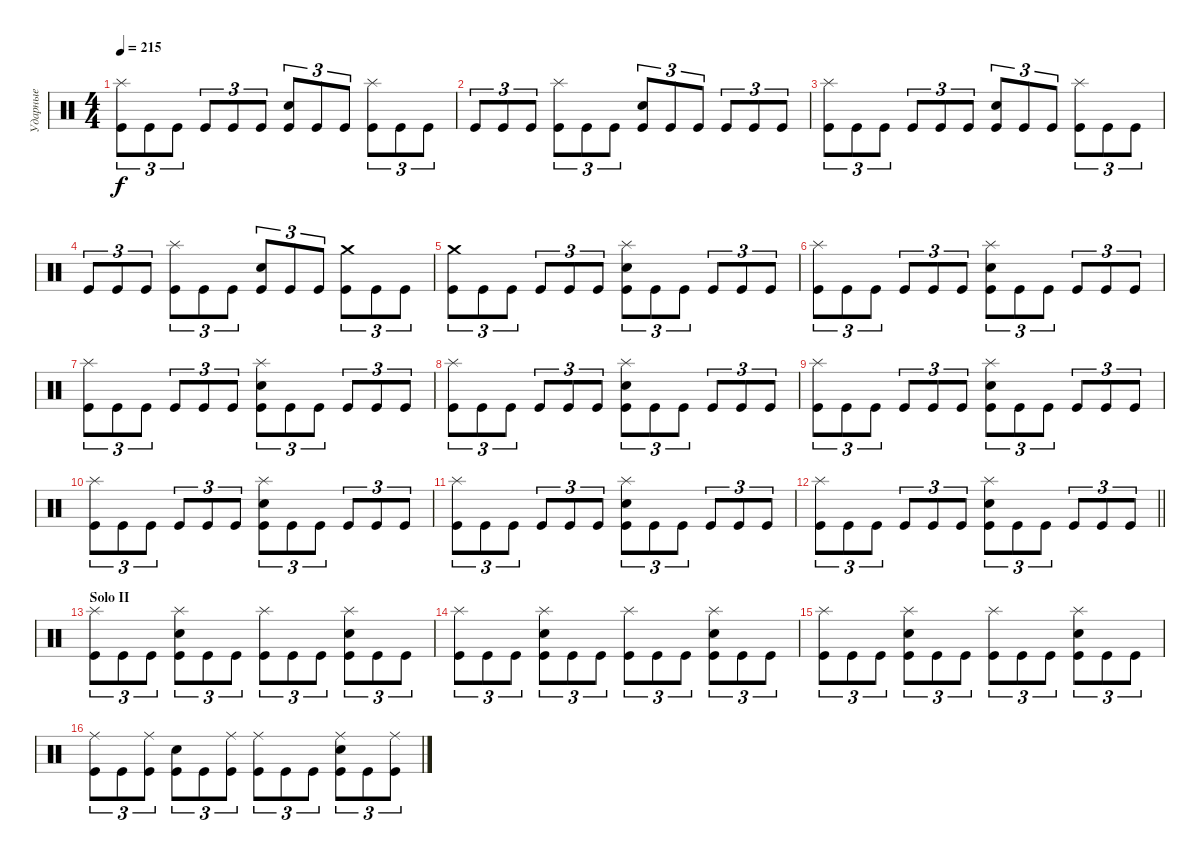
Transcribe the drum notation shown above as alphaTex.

\track ("Ударные" "Ударные") {instrument percussion}
\staff {score}
\articulation defaults
\ts (4 4)
\tempo 215
\clef neutral
\ks c
("Splash (hit)" "Kick (hit)").8{tu (3 2) dy f} "Kick (hit)".8{tu (3 2)} "Kick (hit)".8{tu (3 2)} "Kick (hit)".8{tu (3 2)} "Kick (hit)".8{tu (3 2)} "Kick (hit)".8{tu (3 2)} ("Electric Snare (hit)" "Kick (hit)").8{tu (3 2)} "Kick (hit)".8{tu (3 2)} "Kick (hit)".8{tu (3 2)} ("Splash (hit)" "Kick (hit)").8{tu (3 2)} "Kick (hit)".8{tu (3 2)} "Kick (hit)".8{tu (3 2)} |
"Kick (hit)".8{tu (3 2)} "Kick (hit)".8{tu (3 2)} "Kick (hit)".8{tu (3 2)} ("Splash (hit)" "Kick (hit)").8{tu (3 2)} "Kick (hit)".8{tu (3 2)} "Kick (hit)".8{tu (3 2)} ("Electric Snare (hit)" "Kick (hit)").8{tu (3 2)} "Kick (hit)".8{tu (3 2)} "Kick (hit)".8{tu (3 2)} "Kick (hit)".8{tu (3 2)} "Kick (hit)".8{tu (3 2)} "Kick (hit)".8{tu (3 2)} |
("Splash (hit)" "Kick (hit)").8{tu (3 2)} "Kick (hit)".8{tu (3 2)} "Kick (hit)".8{tu (3 2)} "Kick (hit)".8{tu (3 2)} "Kick (hit)".8{tu (3 2)} "Kick (hit)".8{tu (3 2)} ("Electric Snare (hit)" "Kick (hit)").8{tu (3 2)} "Kick (hit)".8{tu (3 2)} "Kick (hit)".8{tu (3 2)} ("Splash (hit)" "Kick (hit)").8{tu (3 2)} "Kick (hit)".8{tu (3 2)} "Kick (hit)".8{tu (3 2)} |
"Kick (hit)".8{tu (3 2)} "Kick (hit)".8{tu (3 2)} "Kick (hit)".8{tu (3 2)} ("Splash (hit)" "Kick (hit)").8{tu (3 2)} "Kick (hit)".8{tu (3 2)} "Kick (hit)".8{tu (3 2)} ("Electric Snare (hit)" "Kick (hit)").8{tu (3 2)} "Kick (hit)".8{tu (3 2)} "Kick (hit)".8{tu (3 2)} ("Crash medium (hit)" "Kick (hit)").8{tu (3 2)} "Kick (hit)".8{tu (3 2)} "Kick (hit)".8{tu (3 2)} |
("Crash medium (hit)" "Kick (hit)").8{tu (3 2)} "Kick (hit)".8{tu (3 2)} "Kick (hit)".8{tu (3 2)} "Kick (hit)".8{tu (3 2)} "Kick (hit)".8{tu (3 2)} "Kick (hit)".8{tu (3 2)} ("Splash (hit)" "Electric Snare (hit)" "Kick (hit)").8{tu (3 2)} "Kick (hit)".8{tu (3 2)} "Kick (hit)".8{tu (3 2)} "Kick (hit)".8{tu (3 2)} "Kick (hit)".8{tu (3 2)} "Kick (hit)".8{tu (3 2)} |
("Splash (hit)" "Kick (hit)").8{tu (3 2)} "Kick (hit)".8{tu (3 2)} "Kick (hit)".8{tu (3 2)} "Kick (hit)".8{tu (3 2)} "Kick (hit)".8{tu (3 2)} "Kick (hit)".8{tu (3 2)} ("Splash (hit)" "Electric Snare (hit)" "Kick (hit)").8{tu (3 2)} "Kick (hit)".8{tu (3 2)} "Kick (hit)".8{tu (3 2)} "Kick (hit)".8{tu (3 2)} "Kick (hit)".8{tu (3 2)} "Kick (hit)".8{tu (3 2)} |
("Splash (hit)" "Kick (hit)").8{tu (3 2)} "Kick (hit)".8{tu (3 2)} "Kick (hit)".8{tu (3 2)} "Kick (hit)".8{tu (3 2)} "Kick (hit)".8{tu (3 2)} "Kick (hit)".8{tu (3 2)} ("Splash (hit)" "Electric Snare (hit)" "Kick (hit)").8{tu (3 2)} "Kick (hit)".8{tu (3 2)} "Kick (hit)".8{tu (3 2)} "Kick (hit)".8{tu (3 2)} "Kick (hit)".8{tu (3 2)} "Kick (hit)".8{tu (3 2)} |
("Splash (hit)" "Kick (hit)").8{tu (3 2)} "Kick (hit)".8{tu (3 2)} "Kick (hit)".8{tu (3 2)} "Kick (hit)".8{tu (3 2)} "Kick (hit)".8{tu (3 2)} "Kick (hit)".8{tu (3 2)} ("Splash (hit)" "Electric Snare (hit)" "Kick (hit)").8{tu (3 2)} "Kick (hit)".8{tu (3 2)} "Kick (hit)".8{tu (3 2)} "Kick (hit)".8{tu (3 2)} "Kick (hit)".8{tu (3 2)} "Kick (hit)".8{tu (3 2)} |
("Splash (hit)" "Kick (hit)").8{tu (3 2)} "Kick (hit)".8{tu (3 2)} "Kick (hit)".8{tu (3 2)} "Kick (hit)".8{tu (3 2)} "Kick (hit)".8{tu (3 2)} "Kick (hit)".8{tu (3 2)} ("Splash (hit)" "Electric Snare (hit)" "Kick (hit)").8{tu (3 2)} "Kick (hit)".8{tu (3 2)} "Kick (hit)".8{tu (3 2)} "Kick (hit)".8{tu (3 2)} "Kick (hit)".8{tu (3 2)} "Kick (hit)".8{tu (3 2)} |
("Splash (hit)" "Kick (hit)").8{tu (3 2)} "Kick (hit)".8{tu (3 2)} "Kick (hit)".8{tu (3 2)} "Kick (hit)".8{tu (3 2)} "Kick (hit)".8{tu (3 2)} "Kick (hit)".8{tu (3 2)} ("Splash (hit)" "Electric Snare (hit)" "Kick (hit)").8{tu (3 2)} "Kick (hit)".8{tu (3 2)} "Kick (hit)".8{tu (3 2)} "Kick (hit)".8{tu (3 2)} "Kick (hit)".8{tu (3 2)} "Kick (hit)".8{tu (3 2)} |
("Splash (hit)" "Kick (hit)").8{tu (3 2)} "Kick (hit)".8{tu (3 2)} "Kick (hit)".8{tu (3 2)} "Kick (hit)".8{tu (3 2)} "Kick (hit)".8{tu (3 2)} "Kick (hit)".8{tu (3 2)} ("Splash (hit)" "Electric Snare (hit)" "Kick (hit)").8{tu (3 2)} "Kick (hit)".8{tu (3 2)} "Kick (hit)".8{tu (3 2)} "Kick (hit)".8{tu (3 2)} "Kick (hit)".8{tu (3 2)} "Kick (hit)".8{tu (3 2)} |
\barLineRight lightlight
("Splash (hit)" "Kick (hit)").8{tu (3 2)} "Kick (hit)".8{tu (3 2)} "Kick (hit)".8{tu (3 2)} "Kick (hit)".8{tu (3 2)} "Kick (hit)".8{tu (3 2)} "Kick (hit)".8{tu (3 2)} ("Splash (hit)" "Electric Snare (hit)" "Kick (hit)").8{tu (3 2)} "Kick (hit)".8{tu (3 2)} "Kick (hit)".8{tu (3 2)} "Kick (hit)".8{tu (3 2)} "Kick (hit)".8{tu (3 2)} "Kick (hit)".8{tu (3 2)} |
\section ("" "Solo II")
("Splash (hit)" "Kick (hit)").8{tu (3 2)} "Kick (hit)".8{tu (3 2)} "Kick (hit)".8{tu (3 2)} ("Splash (hit)" "Electric Snare (hit)" "Kick (hit)").8{tu (3 2)} "Kick (hit)".8{tu (3 2)} "Kick (hit)".8{tu (3 2)} ("Splash (hit)" "Kick (hit)").8{tu (3 2)} "Kick (hit)".8{tu (3 2)} "Kick (hit)".8{tu (3 2)} ("Splash (hit)" "Electric Snare (hit)" "Kick (hit)").8{tu (3 2)} "Kick (hit)".8{tu (3 2)} "Kick (hit)".8{tu (3 2)} |
("Splash (hit)" "Kick (hit)").8{tu (3 2)} "Kick (hit)".8{tu (3 2)} "Kick (hit)".8{tu (3 2)} ("Splash (hit)" "Electric Snare (hit)" "Kick (hit)").8{tu (3 2)} "Kick (hit)".8{tu (3 2)} "Kick (hit)".8{tu (3 2)} ("Splash (hit)" "Kick (hit)").8{tu (3 2)} "Kick (hit)".8{tu (3 2)} "Kick (hit)".8{tu (3 2)} ("Splash (hit)" "Electric Snare (hit)" "Kick (hit)").8{tu (3 2)} "Kick (hit)".8{tu (3 2)} "Kick (hit)".8{tu (3 2)} |
("Splash (hit)" "Kick (hit)").8{tu (3 2)} "Kick (hit)".8{tu (3 2)} "Kick (hit)".8{tu (3 2)} ("Splash (hit)" "Electric Snare (hit)" "Kick (hit)").8{tu (3 2)} "Kick (hit)".8{tu (3 2)} "Kick (hit)".8{tu (3 2)} ("Splash (hit)" "Kick (hit)").8{tu (3 2)} "Kick (hit)".8{tu (3 2)} "Kick (hit)".8{tu (3 2)} ("Splash (hit)" "Electric Snare (hit)" "Kick (hit)").8{tu (3 2)} "Kick (hit)".8{tu (3 2)} "Kick (hit)".8{tu (3 2)} |
("Ride (middle)" "Kick (hit)").8{tu (3 2)} "Kick (hit)".8{tu (3 2)} ("Ride (middle)" "Kick (hit)").8{tu (3 2)} ("Electric Snare (hit)" "Kick (hit)").8{tu (3 2)} "Kick (hit)".8{tu (3 2)} ("Ride (middle)" "Kick (hit)").8{tu (3 2)} ("Ride (middle)" "Kick (hit)").8{tu (3 2)} "Kick (hit)".8{tu (3 2)} "Kick (hit)".8{tu (3 2)} ("Ride (middle)" "Electric Snare (hit)" "Kick (hit)").8{tu (3 2)} "Kick (hit)".8{tu (3 2)} ("Ride (middle)" "Kick (hit)").8{tu (3 2)}
